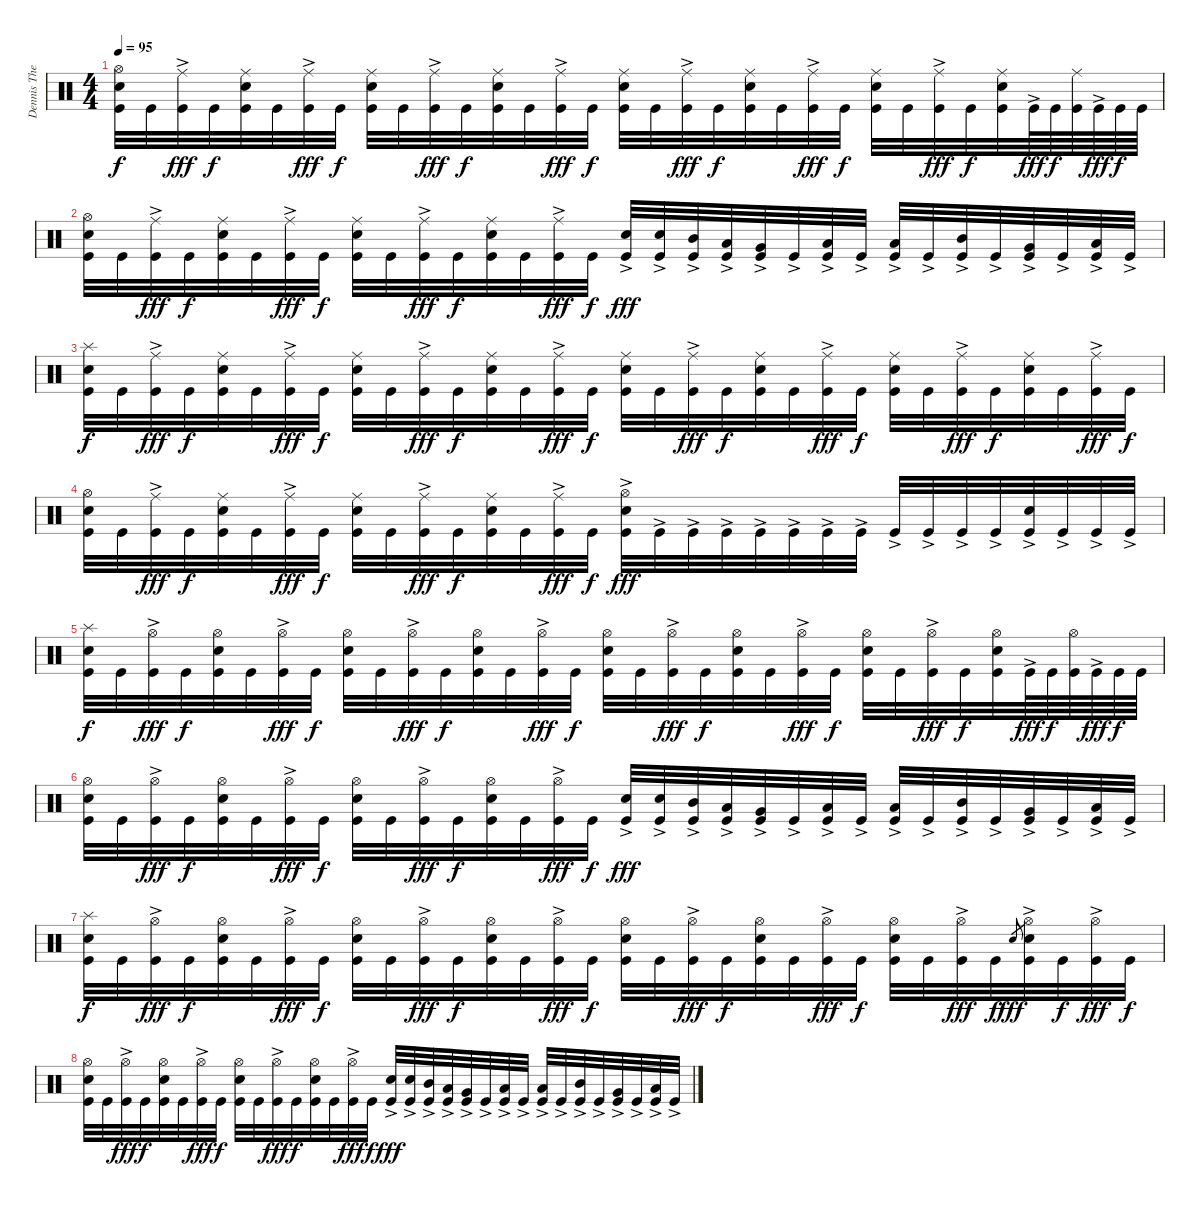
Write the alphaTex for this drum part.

\track ("Dennis The Menace" "Dennis The") {instrument percussion}
\staff {score}
\articulation defaults
\ts (4 4)
\tempo 95
\clef neutral
\ks c
("Hi-Hat (open)" "Electric Snare (hit)" "Kick (hit)").32{dy f} "Kick (hit)".32 ("Ride (middle)" "Kick (hit)"{ac}).32{dy fff} "Kick (hit)".32{dy f} ("Ride (middle)" "Electric Snare (hit)" "Kick (hit)").32 "Kick (hit)".32 ("Ride (middle)" "Kick (hit)"{ac}).32{dy fff} "Kick (hit)".32{dy f} ("Ride (middle)" "Electric Snare (hit)" "Kick (hit)").32 "Kick (hit)".32 ("Ride (middle)" "Kick (hit)"{ac}).32{dy fff} "Kick (hit)".32{dy f} ("Ride (middle)" "Electric Snare (hit)" "Kick (hit)").32 "Kick (hit)".32 ("Ride (middle)" "Kick (hit)"{ac}).32{dy fff} "Kick (hit)".32{dy f} ("Ride (middle)" "Electric Snare (hit)" "Kick (hit)").32 "Kick (hit)".32 ("Ride (middle)" "Kick (hit)"{ac}).32{dy fff} "Kick (hit)".32{dy f} ("Ride (middle)" "Electric Snare (hit)" "Kick (hit)").32 "Kick (hit)".32 ("Ride (middle)" "Kick (hit)"{ac}).32{dy fff} "Kick (hit)".32{dy f} ("Ride (middle)" "Electric Snare (hit)" "Kick (hit)").32 "Kick (hit)".32 ("Ride (middle)" "Kick (hit)"{ac}).32{dy fff} "Kick (hit)".32{dy f} ("Ride (middle)" "Electric Snare (hit)" "Kick (hit)").32 "Kick (hit)"{ac}.64{dy fff} "Kick (hit)".64{dy f} ("Ride (middle)" "Kick (hit)").64 "Kick (hit)"{ac}.64{dy fff} "Kick (hit)".64{dy f} "Kick (hit)".64 |
("Hi-Hat (open)" "Electric Snare (hit)" "Kick (hit)").32 "Kick (hit)".32 ("Ride (middle)" "Kick (hit)"{ac}).32{dy fff} "Kick (hit)".32{dy f} ("Ride (middle)" "Electric Snare (hit)" "Kick (hit)").32 "Kick (hit)".32 ("Ride (middle)" "Kick (hit)"{ac}).32{dy fff} "Kick (hit)".32{dy f} ("Ride (middle)" "Electric Snare (hit)" "Kick (hit)").32 "Kick (hit)".32 ("Ride (middle)" "Kick (hit)"{ac}).32{dy fff} "Kick (hit)".32{dy f} ("Ride (middle)" "Electric Snare (hit)" "Kick (hit)").32 "Kick (hit)".32 ("Ride (middle)" "Kick (hit)"{ac}).32{dy fff} "Kick (hit)".32{dy f} ("Electric Snare (hit)"{ac} "Kick (hit)"{ac}).32{dy fff} ("Electric Snare (hit)"{ac} "Kick (hit)"{ac}).32 ("Mid Tom (hit)" "Kick (hit)"{ac}).32 ("Low Tom (hit)" "Kick (hit)"{ac}).32 ("Very Low Tom (hit)" "Kick (hit)"{ac}).32 "Kick (hit)"{ac}.32 ("Low Floor Tom (hit)" "Kick (hit)"{ac}).32 "Kick (hit)"{ac}.32 ("Low Tom (hit)" "Kick (hit)"{ac}).32 "Kick (hit)"{ac}.32 ("Mid Tom (hit)" "Kick (hit)"{ac}).32 "Kick (hit)"{ac}.32 ("Very Low Tom (hit)" "Kick (hit)"{ac}).32 "Kick (hit)"{ac}.32 ("Low Floor Tom (hit)" "Kick (hit)"{ac}).32 "Kick (hit)"{ac}.32 |
("Splash (hit)" "Electric Snare (hit)" "Kick (hit)").32{dy f} "Kick (hit)".32 ("Ride (middle)" "Kick (hit)"{ac}).32{dy fff} "Kick (hit)".32{dy f} ("Ride (middle)" "Electric Snare (hit)" "Kick (hit)").32 "Kick (hit)".32 ("Ride (middle)" "Kick (hit)"{ac}).32{dy fff} "Kick (hit)".32{dy f} ("Ride (middle)" "Electric Snare (hit)" "Kick (hit)").32 "Kick (hit)".32 ("Ride (middle)" "Kick (hit)"{ac}).32{dy fff} "Kick (hit)".32{dy f} ("Ride (middle)" "Electric Snare (hit)" "Kick (hit)").32 "Kick (hit)".32 ("Ride (middle)" "Kick (hit)"{ac}).32{dy fff} "Kick (hit)".32{dy f} ("Ride (middle)" "Electric Snare (hit)" "Kick (hit)").32 "Kick (hit)".32 ("Ride (middle)" "Kick (hit)"{ac}).32{dy fff} "Kick (hit)".32{dy f} ("Ride (middle)" "Electric Snare (hit)" "Kick (hit)").32 "Kick (hit)".32 ("Ride (middle)" "Kick (hit)"{ac}).32{dy fff} "Kick (hit)".32{dy f} ("Ride (middle)" "Electric Snare (hit)" "Kick (hit)").32 "Kick (hit)".32 ("Ride (middle)" "Kick (hit)"{ac}).32{dy fff} "Kick (hit)".32{dy f} ("Ride (middle)" "Electric Snare (hit)" "Kick (hit)").32 "Kick (hit)".32 ("Ride (middle)" "Kick (hit)"{ac}).32{dy fff} "Kick (hit)".32{dy f} |
("Hi-Hat (open)" "Electric Snare (hit)" "Kick (hit)").32 "Kick (hit)".32 ("Ride (middle)" "Kick (hit)"{ac}).32{dy fff} "Kick (hit)".32{dy f} ("Ride (middle)" "Electric Snare (hit)" "Kick (hit)").32 "Kick (hit)".32 ("Ride (middle)" "Kick (hit)"{ac}).32{dy fff} "Kick (hit)".32{dy f} ("Ride (middle)" "Electric Snare (hit)" "Kick (hit)").32 "Kick (hit)".32 ("Ride (middle)" "Kick (hit)"{ac}).32{dy fff} "Kick (hit)".32{dy f} ("Ride (middle)" "Electric Snare (hit)" "Kick (hit)").32 "Kick (hit)".32 ("Ride (middle)" "Kick (hit)"{ac}).32{dy fff} "Kick (hit)".32{dy f} ("Hi-Hat (open)" "Electric Snare (hit)"{ac} "Kick (hit)"{ac}).32{dy fff} "Kick (hit)"{ac}.32 "Kick (hit)"{ac}.32 "Kick (hit)"{ac}.32 "Kick (hit)"{ac}.32 "Kick (hit)"{ac}.32 "Kick (hit)"{ac}.32 "Kick (hit)"{ac}.32 "Kick (hit)"{ac}.32 "Kick (hit)"{ac}.32 "Kick (hit)"{ac}.32 "Kick (hit)"{ac}.32 ("Electric Snare (hit)"{ac} "Kick (hit)"{ac}).32 "Kick (hit)"{ac}.32 "Kick (hit)"{ac}.32 "Kick (hit)"{ac}.32 |
("Splash (hit)" "Electric Snare (hit)" "Kick (hit)").32{dy f} "Kick (hit)".32 ("Hi-Hat (open)" "Kick (hit)"{ac}).32{dy fff} "Kick (hit)".32{dy f} ("Hi-Hat (open)" "Electric Snare (hit)" "Kick (hit)").32 "Kick (hit)".32 ("Hi-Hat (open)" "Kick (hit)"{ac}).32{dy fff} "Kick (hit)".32{dy f} ("Hi-Hat (open)" "Electric Snare (hit)" "Kick (hit)").32 "Kick (hit)".32 ("Hi-Hat (open)" "Kick (hit)"{ac}).32{dy fff} "Kick (hit)".32{dy f} ("Hi-Hat (open)" "Electric Snare (hit)" "Kick (hit)").32 "Kick (hit)".32 ("Hi-Hat (open)" "Kick (hit)"{ac}).32{dy fff} "Kick (hit)".32{dy f} ("Hi-Hat (open)" "Electric Snare (hit)" "Kick (hit)").32 "Kick (hit)".32 ("Hi-Hat (open)" "Kick (hit)"{ac}).32{dy fff} "Kick (hit)".32{dy f} ("Hi-Hat (open)" "Electric Snare (hit)" "Kick (hit)").32 "Kick (hit)".32 ("Hi-Hat (open)" "Kick (hit)"{ac}).32{dy fff} "Kick (hit)".32{dy f} ("Hi-Hat (open)" "Electric Snare (hit)" "Kick (hit)").32 "Kick (hit)".32 ("Hi-Hat (open)" "Kick (hit)"{ac}).32{dy fff} "Kick (hit)".32{dy f} ("Hi-Hat (open)" "Electric Snare (hit)" "Kick (hit)").32 "Kick (hit)"{ac}.64{dy fff} "Kick (hit)".64{dy f} ("Hi-Hat (open)" "Kick (hit)").64 "Kick (hit)"{ac}.64{dy fff} "Kick (hit)".64{dy f} "Kick (hit)".64 |
("Hi-Hat (open)" "Electric Snare (hit)" "Kick (hit)").32 "Kick (hit)".32 ("Hi-Hat (open)" "Kick (hit)"{ac}).32{dy fff} "Kick (hit)".32{dy f} ("Hi-Hat (open)" "Electric Snare (hit)" "Kick (hit)").32 "Kick (hit)".32 ("Hi-Hat (open)" "Kick (hit)"{ac}).32{dy fff} "Kick (hit)".32{dy f} ("Hi-Hat (open)" "Electric Snare (hit)" "Kick (hit)").32 "Kick (hit)".32 ("Hi-Hat (open)" "Kick (hit)"{ac}).32{dy fff} "Kick (hit)".32{dy f} ("Hi-Hat (open)" "Electric Snare (hit)" "Kick (hit)").32 "Kick (hit)".32 ("Hi-Hat (open)" "Kick (hit)"{ac}).32{dy fff} "Kick (hit)".32{dy f} ("Electric Snare (hit)"{ac} "Kick (hit)"{ac}).32{dy fff} ("Electric Snare (hit)"{ac} "Kick (hit)"{ac}).32 ("Mid Tom (hit)" "Kick (hit)"{ac}).32 ("Low Tom (hit)" "Kick (hit)"{ac}).32 ("Very Low Tom (hit)" "Kick (hit)"{ac}).32 "Kick (hit)"{ac}.32 ("Low Floor Tom (hit)" "Kick (hit)"{ac}).32 "Kick (hit)"{ac}.32 ("Low Tom (hit)" "Kick (hit)"{ac}).32 "Kick (hit)"{ac}.32 ("Mid Tom (hit)" "Kick (hit)"{ac}).32 "Kick (hit)"{ac}.32 ("Very Low Tom (hit)" "Kick (hit)"{ac}).32 "Kick (hit)"{ac}.32 ("Low Floor Tom (hit)" "Kick (hit)"{ac}).32 "Kick (hit)"{ac}.32 |
("Splash (hit)" "Electric Snare (hit)" "Kick (hit)").32{dy f} "Kick (hit)".32 ("Hi-Hat (open)" "Kick (hit)"{ac}).32{dy fff} "Kick (hit)".32{dy f} ("Hi-Hat (open)" "Electric Snare (hit)" "Kick (hit)").32 "Kick (hit)".32 ("Hi-Hat (open)" "Kick (hit)"{ac}).32{dy fff} "Kick (hit)".32{dy f} ("Hi-Hat (open)" "Electric Snare (hit)" "Kick (hit)").32 "Kick (hit)".32 ("Hi-Hat (open)" "Kick (hit)"{ac}).32{dy fff} "Kick (hit)".32{dy f} ("Hi-Hat (open)" "Electric Snare (hit)" "Kick (hit)").32 "Kick (hit)".32 ("Hi-Hat (open)" "Kick (hit)"{ac}).32{dy fff} "Kick (hit)".32{dy f} ("Hi-Hat (open)" "Electric Snare (hit)" "Kick (hit)").32 "Kick (hit)".32 ("Hi-Hat (open)" "Kick (hit)"{ac}).32{dy fff} "Kick (hit)".32{dy f} ("Hi-Hat (open)" "Electric Snare (hit)" "Kick (hit)").32 "Kick (hit)".32 ("Hi-Hat (open)" "Kick (hit)"{ac}).32{dy fff} "Kick (hit)".32{dy f} ("Hi-Hat (open)" "Electric Snare (hit)" "Kick (hit)").32 "Kick (hit)".32 ("Hi-Hat (open)" "Kick (hit)"{ac}).32{dy fff} "Kick (hit)".32{dy f} "Electric Snare (hit)".8{gr dy fff} ("Hi-Hat (open)" "Electric Snare (hit)"{ac} "Kick (hit)").32 "Kick (hit)".32{dy f} ("Hi-Hat (open)" "Kick (hit)"{ac}).32{dy fff} "Kick (hit)".32{dy f} |
("Hi-Hat (open)" "Electric Snare (hit)" "Kick (hit)").32 "Kick (hit)".32 ("Hi-Hat (open)" "Kick (hit)"{ac}).32{dy fff} "Kick (hit)".32{dy f} ("Hi-Hat (open)" "Electric Snare (hit)" "Kick (hit)").32 "Kick (hit)".32 ("Hi-Hat (open)" "Kick (hit)"{ac}).32{dy fff} "Kick (hit)".32{dy f} ("Hi-Hat (open)" "Electric Snare (hit)" "Kick (hit)").32 "Kick (hit)".32 ("Hi-Hat (open)" "Kick (hit)"{ac}).32{dy fff} "Kick (hit)".32{dy f} ("Hi-Hat (open)" "Electric Snare (hit)" "Kick (hit)").32 "Kick (hit)".32 ("Hi-Hat (open)" "Kick (hit)"{ac}).32{dy fff} "Kick (hit)".32{dy f} ("Electric Snare (hit)"{ac} "Kick (hit)"{ac}).32{dy fff} ("Electric Snare (hit)"{ac} "Kick (hit)"{ac}).32 ("Mid Tom (hit)" "Kick (hit)"{ac}).32 ("Low Tom (hit)" "Kick (hit)"{ac}).32 ("Very Low Tom (hit)" "Kick (hit)"{ac}).32 "Kick (hit)"{ac}.32 ("Low Floor Tom (hit)" "Kick (hit)"{ac}).32 "Kick (hit)"{ac}.32 ("Low Tom (hit)" "Kick (hit)"{ac}).32 "Kick (hit)"{ac}.32 ("Mid Tom (hit)" "Kick (hit)"{ac}).32 "Kick (hit)"{ac}.32 ("Very Low Tom (hit)" "Kick (hit)"{ac}).32 "Kick (hit)"{ac}.32 ("Low Floor Tom (hit)" "Kick (hit)"{ac}).32 "Kick (hit)"{ac}.32
